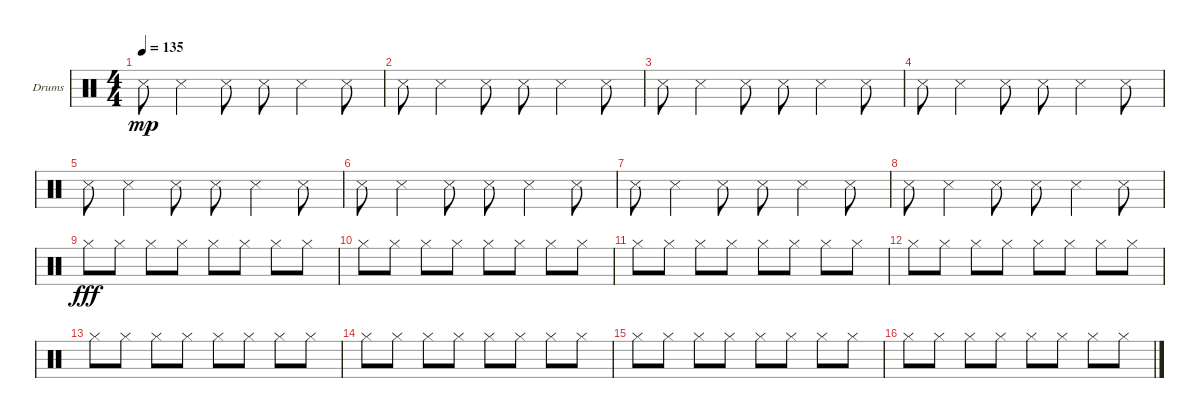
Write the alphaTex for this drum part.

\defaultSystemsLayout 4
\bracketExtendMode groupsimilarinstruments
\firstSystemTrackNameOrientation horizontal
\otherSystemsTrackNameOrientation horizontal
\track ("Helders" "Drums") {instrument percussion}
\staff {score}
\articulation defaults
\ts (4 4)
\tempo 135
\clef neutral
\ks c "Snare (side stick) 3".8{dy mp} "Snare (side stick) 3".4 "Snare (side stick) 3".8 "Snare (side stick) 3".8 "Snare (side stick) 3".4 "Snare (side stick) 3".8
|
"Snare (side stick) 3".8 "Snare (side stick) 3".4 "Snare (side stick) 3".8 "Snare (side stick) 3".8 "Snare (side stick) 3".4 "Snare (side stick) 3".8 |
"Snare (side stick) 3".8 "Snare (side stick) 3".4 "Snare (side stick) 3".8 "Snare (side stick) 3".8 "Snare (side stick) 3".4 "Snare (side stick) 3".8 |
"Snare (side stick) 3".8 "Snare (side stick) 3".4 "Snare (side stick) 3".8 "Snare (side stick) 3".8 "Snare (side stick) 3".4 "Snare (side stick) 3".8 |
"Snare (side stick) 3".8 "Snare (side stick) 3".4 "Snare (side stick) 3".8 "Snare (side stick) 3".8 "Snare (side stick) 3".4 "Snare (side stick) 3".8 |
"Snare (side stick) 3".8 "Snare (side stick) 3".4 "Snare (side stick) 3".8 "Snare (side stick) 3".8 "Snare (side stick) 3".4 "Snare (side stick) 3".8 |
"Snare (side stick) 3".8 "Snare (side stick) 3".4 "Snare (side stick) 3".8 "Snare (side stick) 3".8 "Snare (side stick) 3".4 "Snare (side stick) 3".8 |
"Snare (side stick) 3".8 "Snare (side stick) 3".4 "Snare (side stick) 3".8 "Snare (side stick) 3".8 "Snare (side stick) 3".4 "Snare (side stick) 3".8 |
"Hi-Hat (closed)".8{dy fff} "Hi-Hat (closed)".8 "Hi-Hat (closed)".8 "Hi-Hat (closed)".8 "Hi-Hat (closed)".8 "Hi-Hat (closed)".8 "Hi-Hat (closed)".8 "Hi-Hat (closed)".8 |
"Hi-Hat (closed)".8 "Hi-Hat (closed)".8 "Hi-Hat (closed)".8 "Hi-Hat (closed)".8 "Hi-Hat (closed)".8 "Hi-Hat (closed)".8 "Hi-Hat (closed)".8 "Hi-Hat (closed)".8 |
"Hi-Hat (closed)".8 "Hi-Hat (closed)".8 "Hi-Hat (closed)".8 "Hi-Hat (closed)".8 "Hi-Hat (closed)".8 "Hi-Hat (closed)".8 "Hi-Hat (closed)".8 "Hi-Hat (closed)".8 |
"Hi-Hat (closed)".8 "Hi-Hat (closed)".8 "Hi-Hat (closed)".8 "Hi-Hat (closed)".8 "Hi-Hat (closed)".8 "Hi-Hat (closed)".8 "Hi-Hat (closed)".8 "Hi-Hat (closed)".8 |
"Hi-Hat (closed)".8 "Hi-Hat (closed)".8 "Hi-Hat (closed)".8 "Hi-Hat (closed)".8 "Hi-Hat (closed)".8 "Hi-Hat (closed)".8 "Hi-Hat (closed)".8 "Hi-Hat (closed)".8 |
"Hi-Hat (closed)".8 "Hi-Hat (closed)".8 "Hi-Hat (closed)".8 "Hi-Hat (closed)".8 "Hi-Hat (closed)".8 "Hi-Hat (closed)".8 "Hi-Hat (closed)".8 "Hi-Hat (closed)".8 |
"Hi-Hat (closed)".8 "Hi-Hat (closed)".8 "Hi-Hat (closed)".8 "Hi-Hat (closed)".8 "Hi-Hat (closed)".8 "Hi-Hat (closed)".8 "Hi-Hat (closed)".8 "Hi-Hat (closed)".8 |
"Hi-Hat (closed)".8 "Hi-Hat (closed)".8 "Hi-Hat (closed)".8 "Hi-Hat (closed)".8 "Hi-Hat (closed)".8 "Hi-Hat (closed)".8 "Hi-Hat (closed)".8 "Hi-Hat (closed)".8
